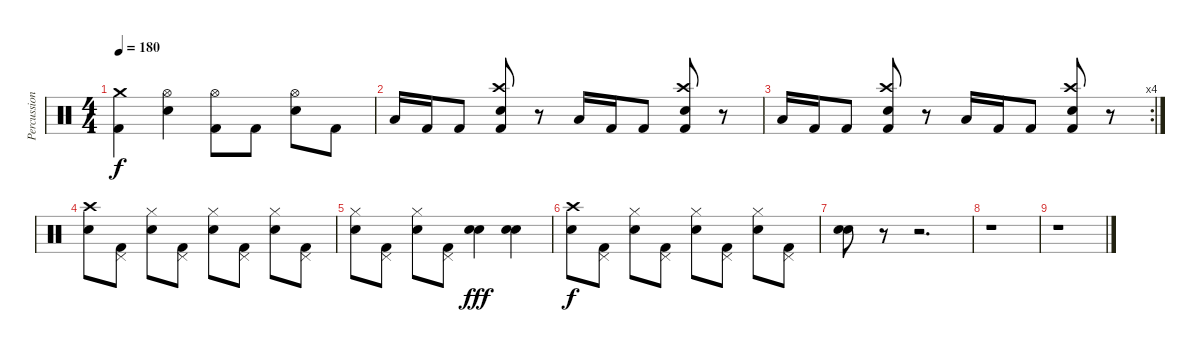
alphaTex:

\track ("Percussion" "Percussion") {instrument percussion}
\staff {score}
\articulation defaults
\ts (4 4)
\tempo 180
\clef neutral
\ks c
("Crash medium (hit)" "Kick (hit) 2").4{dy f} ("Hi-Hat (open)" "Electric Snare (hit)").4 ("Hi-Hat (open)" "Kick (hit) 2").8 "Kick (hit) 2".8 ("Hi-Hat (open)" "Electric Snare (hit)").8 "Kick (hit) 2".8 |
"Low Tom (hit)".16 "Kick (hit) 2".16 "Kick (hit) 2".8 ("Crash high (hit)" "Snare (hit) 2" "Kick (hit) 2").8 r.8 "Low Tom (hit)".16 "Kick (hit) 2".16 "Kick (hit) 2".8 ("Crash high (hit)" "Snare (hit) 2" "Kick (hit) 2").8 r.8 |
\rc 4 "Low Tom (hit)".16 "Kick (hit) 2".16 "Kick (hit) 2".8
("Crash high (hit)" "Snare (hit) 2" "Kick (hit) 2").8 r.8 "Low Tom (hit)".16 "Kick (hit) 2".16 "Kick (hit) 2".8 ("Crash high (hit)" "Snare (hit) 2" "Kick (hit) 2").8 r.8 |
("Crash high (hit)" "Snare (hit) 2").8 ("Pedal Hi-Hat (hit)" "Kick (hit) 2").8 ("Hi-Hat (closed)" "Snare (hit) 2").8 ("Pedal Hi-Hat (hit)" "Kick (hit) 2").8 ("Hi-Hat (closed)" "Snare (hit) 2").8 ("Pedal Hi-Hat (hit)" "Kick (hit) 2").8 ("Hi-Hat (closed)" "Snare (hit) 2").8 ("Pedal Hi-Hat (hit)" "Kick (hit) 2").8 |
("Hi-Hat (closed)" "Snare (hit) 2").8 ("Pedal Hi-Hat (hit)" "Kick (hit) 2").8 ("Hi-Hat (closed)" "Snare (hit) 2").8 ("Pedal Hi-Hat (hit)" "Kick (hit) 2").8 ("Snare (hit) 2" "Electric Snare (hit)").4{dy fff} ("Snare (hit) 2" "Electric Snare (hit)").4 |
("Crash high (hit)" "Snare (hit) 2").8{dy f} ("Pedal Hi-Hat (hit)" "Kick (hit) 2").8 ("Hi-Hat (closed)" "Snare (hit) 2").8 ("Pedal Hi-Hat (hit)" "Kick (hit) 2").8 ("Hi-Hat (closed)" "Snare (hit) 2").8 ("Pedal Hi-Hat (hit)" "Kick (hit) 2").8 ("Hi-Hat (closed)" "Snare (hit) 2").8 ("Pedal Hi-Hat (hit)" "Kick (hit) 2").8 |
("Snare (hit) 2" "Electric Snare (hit)").8 r.8 r.2{d} |
r.1 |
r.1
